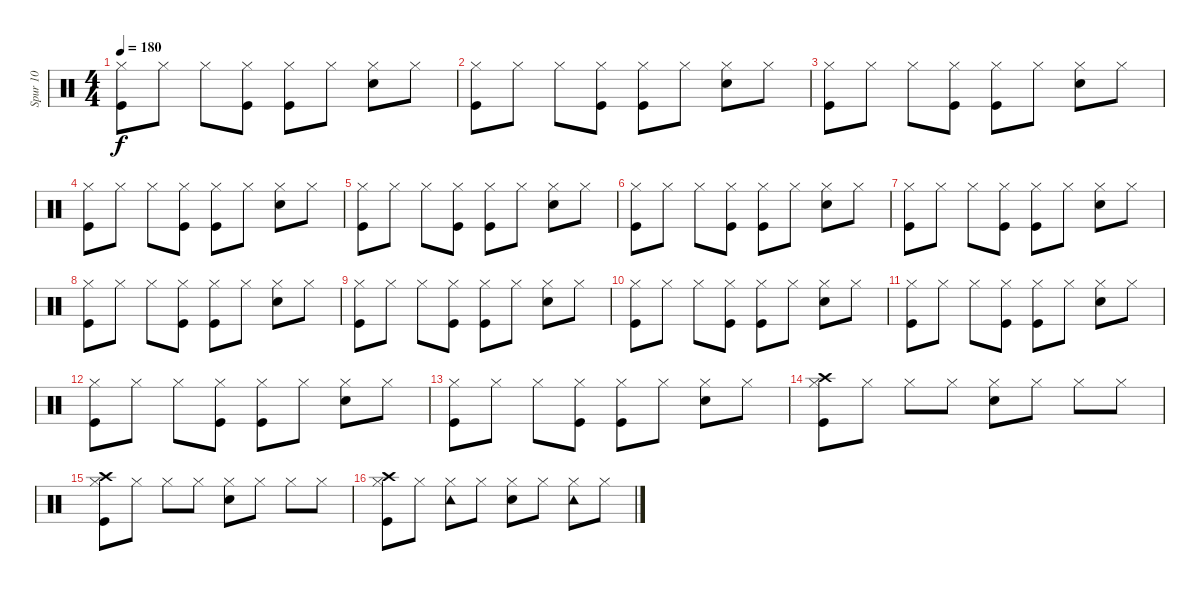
\track ("Spur 10" "Spur 10") {instrument percussion}
\staff {score}
\articulation defaults
\ts (4 4)
\tempo 180
\clef neutral
\ks c
("Hi-Hat (closed)" "Kick (hit)").8{dy f} "Hi-Hat (closed)".8 "Hi-Hat (closed)".8 ("Hi-Hat (closed)" "Kick (hit)").8 ("Hi-Hat (closed)" "Kick (hit)").8 "Hi-Hat (closed)".8 ("Hi-Hat (closed)" "Electric Snare (hit)").8 "Hi-Hat (closed)".8 |
("Hi-Hat (closed)" "Kick (hit)").8 "Hi-Hat (closed)".8 "Hi-Hat (closed)".8 ("Hi-Hat (closed)" "Kick (hit)").8 ("Hi-Hat (closed)" "Kick (hit)").8 "Hi-Hat (closed)".8 ("Hi-Hat (closed)" "Electric Snare (hit)").8 "Hi-Hat (closed)".8 |
("Hi-Hat (closed)" "Kick (hit)").8 "Hi-Hat (closed)".8 "Hi-Hat (closed)".8 ("Hi-Hat (closed)" "Kick (hit)").8 ("Hi-Hat (closed)" "Kick (hit)").8 "Hi-Hat (closed)".8 ("Hi-Hat (closed)" "Electric Snare (hit)").8 "Hi-Hat (closed)".8 |
("Hi-Hat (closed)" "Kick (hit)").8 "Hi-Hat (closed)".8 "Hi-Hat (closed)".8 ("Hi-Hat (closed)" "Kick (hit)").8 ("Hi-Hat (closed)" "Kick (hit)").8 "Hi-Hat (closed)".8 ("Hi-Hat (closed)" "Electric Snare (hit)").8 "Hi-Hat (closed)".8 |
("Hi-Hat (closed)" "Kick (hit)").8 "Hi-Hat (closed)".8 "Hi-Hat (closed)".8 ("Hi-Hat (closed)" "Kick (hit)").8 ("Hi-Hat (closed)" "Kick (hit)").8 "Hi-Hat (closed)".8 ("Hi-Hat (closed)" "Electric Snare (hit)").8 "Hi-Hat (closed)".8 |
("Hi-Hat (closed)" "Kick (hit)").8 "Hi-Hat (closed)".8 "Hi-Hat (closed)".8 ("Hi-Hat (closed)" "Kick (hit)").8 ("Hi-Hat (closed)" "Kick (hit)").8 "Hi-Hat (closed)".8 ("Hi-Hat (closed)" "Electric Snare (hit)").8 "Hi-Hat (closed)".8 |
("Hi-Hat (closed)" "Kick (hit)").8 "Hi-Hat (closed)".8 "Hi-Hat (closed)".8 ("Hi-Hat (closed)" "Kick (hit)").8 ("Hi-Hat (closed)" "Kick (hit)").8 "Hi-Hat (closed)".8 ("Hi-Hat (closed)" "Electric Snare (hit)").8 "Hi-Hat (closed)".8 |
("Hi-Hat (closed)" "Kick (hit)").8 "Hi-Hat (closed)".8 "Hi-Hat (closed)".8 ("Hi-Hat (closed)" "Kick (hit)").8 ("Hi-Hat (closed)" "Kick (hit)").8 "Hi-Hat (closed)".8 ("Hi-Hat (closed)" "Electric Snare (hit)").8 "Hi-Hat (closed)".8 |
("Hi-Hat (closed)" "Kick (hit)").8 "Hi-Hat (closed)".8 "Hi-Hat (closed)".8 ("Hi-Hat (closed)" "Kick (hit)").8 ("Hi-Hat (closed)" "Kick (hit)").8 "Hi-Hat (closed)".8 ("Hi-Hat (closed)" "Electric Snare (hit)").8 "Hi-Hat (closed)".8 |
("Hi-Hat (closed)" "Kick (hit)").8 "Hi-Hat (closed)".8 "Hi-Hat (closed)".8 ("Hi-Hat (closed)" "Kick (hit)").8 ("Hi-Hat (closed)" "Kick (hit)").8 "Hi-Hat (closed)".8 ("Hi-Hat (closed)" "Electric Snare (hit)").8 "Hi-Hat (closed)".8 |
("Hi-Hat (closed)" "Kick (hit)").8 "Hi-Hat (closed)".8 "Hi-Hat (closed)".8 ("Hi-Hat (closed)" "Kick (hit)").8 ("Hi-Hat (closed)" "Kick (hit)").8 "Hi-Hat (closed)".8 ("Hi-Hat (closed)" "Electric Snare (hit)").8 "Hi-Hat (closed)".8 |
("Hi-Hat (closed)" "Kick (hit)").8 "Hi-Hat (closed)".8 "Hi-Hat (closed)".8 ("Hi-Hat (closed)" "Kick (hit)").8 ("Hi-Hat (closed)" "Kick (hit)").8 "Hi-Hat (closed)".8 ("Hi-Hat (closed)" "Electric Snare (hit)").8 "Hi-Hat (closed)".8 |
("Hi-Hat (closed)" "Kick (hit)").8 "Hi-Hat (closed)".8 "Hi-Hat (closed)".8 ("Hi-Hat (closed)" "Kick (hit)").8 ("Hi-Hat (closed)" "Kick (hit)").8 "Hi-Hat (closed)".8 ("Hi-Hat (closed)" "Electric Snare (hit)").8 "Hi-Hat (closed)".8 |
("Crash high (hit)" "Hi-Hat (closed)" "Kick (hit)").8 "Hi-Hat (closed)".8 "Hi-Hat (closed)".8 "Hi-Hat (closed)".8 ("Electric Snare (hit)" "Hi-Hat (closed)").8 "Hi-Hat (closed)".8 "Hi-Hat (closed)".8 "Hi-Hat (closed)".8 |
("Crash high (hit)" "Hi-Hat (closed)" "Kick (hit)").8 "Hi-Hat (closed)".8 "Hi-Hat (closed)".8 "Hi-Hat (closed)".8 ("Electric Snare (hit)" "Hi-Hat (closed)").8 "Hi-Hat (closed)".8 "Hi-Hat (closed)".8 "Hi-Hat (closed)".8 |
("Crash high (hit)" "Hi-Hat (closed)" "Kick (hit)").8 "Hi-Hat (closed)".8 ("Tambourine (hit)" "Hi-Hat (closed)").8 "Hi-Hat (closed)".8 ("Electric Snare (hit)" "Hi-Hat (closed)").8 "Hi-Hat (closed)".8 ("Tambourine (hit)" "Hi-Hat (closed)").8 "Hi-Hat (closed)".8
